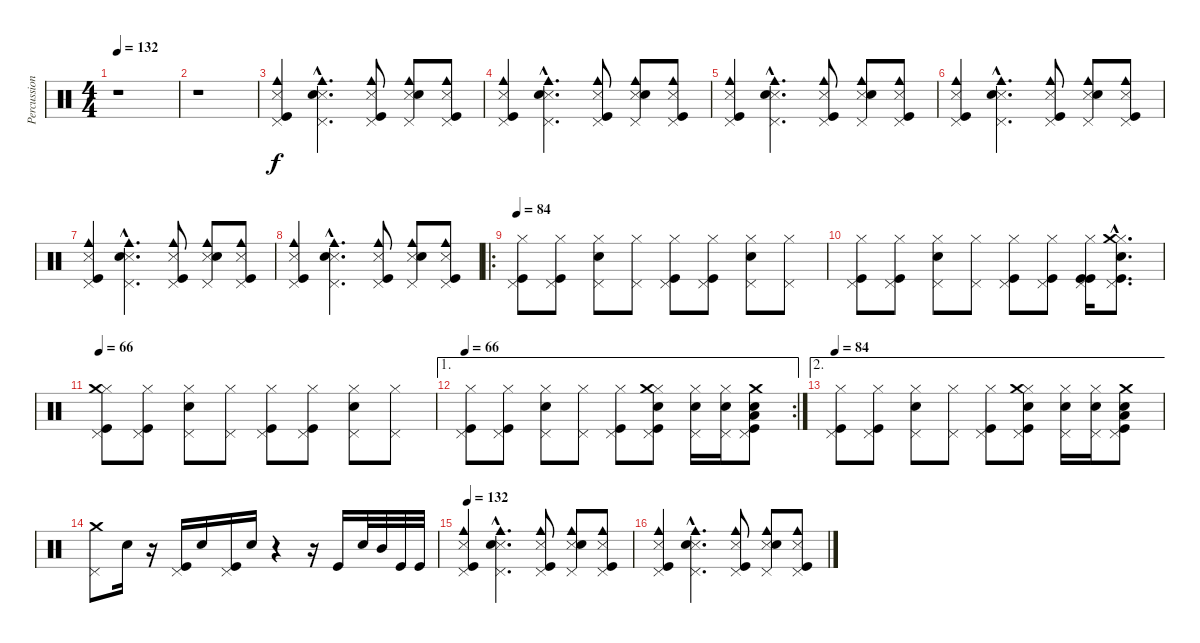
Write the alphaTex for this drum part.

\track ("Percussion" "Percussion") {instrument percussion}
\staff {score}
\articulation defaults
\ts (4 4)
\tempo 132
\clef neutral
\ks c
r.1{dy f} |
r.1 |
("Snare (side stick) 3" "Pedal Hi-Hat (hit)" "Cowbell medium (hit)" "Kick (hit)").4 ("Snare (side stick) 3"{hac} "Pedal Hi-Hat (hit)"{hac} "Cowbell medium (hit)"{hac} "Electric Snare (hit)"{hac}).4{d} ("Snare (side stick) 3" "Pedal Hi-Hat (hit)" "Cowbell medium (hit)" "Kick (hit)").8 ("Snare (side stick) 3" "Pedal Hi-Hat (hit)" "Cowbell medium (hit)" "Electric Snare (hit)").8 ("Snare (side stick) 3" "Pedal Hi-Hat (hit)" "Cowbell medium (hit)" "Kick (hit)").8 |
("Snare (side stick) 3" "Pedal Hi-Hat (hit)" "Cowbell medium (hit)" "Kick (hit)").4 ("Snare (side stick) 3"{hac} "Pedal Hi-Hat (hit)"{hac} "Cowbell medium (hit)"{hac} "Electric Snare (hit)"{hac}).4{d} ("Snare (side stick) 3" "Pedal Hi-Hat (hit)" "Cowbell medium (hit)" "Kick (hit)").8 ("Snare (side stick) 3" "Pedal Hi-Hat (hit)" "Cowbell medium (hit)" "Electric Snare (hit)").8 ("Snare (side stick) 3" "Pedal Hi-Hat (hit)" "Cowbell medium (hit)" "Kick (hit)").8 |
("Snare (side stick) 3" "Pedal Hi-Hat (hit)" "Cowbell medium (hit)" "Kick (hit)").4 ("Snare (side stick) 3"{hac} "Pedal Hi-Hat (hit)"{hac} "Cowbell medium (hit)"{hac} "Electric Snare (hit)"{hac}).4{d} ("Snare (side stick) 3" "Pedal Hi-Hat (hit)" "Cowbell medium (hit)" "Kick (hit)").8 ("Snare (side stick) 3" "Pedal Hi-Hat (hit)" "Cowbell medium (hit)" "Electric Snare (hit)").8 ("Snare (side stick) 3" "Pedal Hi-Hat (hit)" "Cowbell medium (hit)" "Kick (hit)").8 |
("Snare (side stick) 3" "Pedal Hi-Hat (hit)" "Cowbell medium (hit)" "Kick (hit)").4 ("Snare (side stick) 3"{hac} "Pedal Hi-Hat (hit)"{hac} "Cowbell medium (hit)"{hac} "Electric Snare (hit)"{hac}).4{d} ("Snare (side stick) 3" "Pedal Hi-Hat (hit)" "Cowbell medium (hit)" "Kick (hit)").8 ("Snare (side stick) 3" "Pedal Hi-Hat (hit)" "Cowbell medium (hit)" "Electric Snare (hit)").8 ("Snare (side stick) 3" "Pedal Hi-Hat (hit)" "Cowbell medium (hit)" "Kick (hit)").8 |
("Snare (side stick) 3" "Pedal Hi-Hat (hit)" "Cowbell medium (hit)" "Kick (hit)").4 ("Snare (side stick) 3"{hac} "Pedal Hi-Hat (hit)"{hac} "Cowbell medium (hit)"{hac} "Electric Snare (hit)"{hac}).4{d} ("Snare (side stick) 3" "Pedal Hi-Hat (hit)" "Cowbell medium (hit)" "Kick (hit)").8 ("Snare (side stick) 3" "Pedal Hi-Hat (hit)" "Cowbell medium (hit)" "Electric Snare (hit)").8 ("Snare (side stick) 3" "Pedal Hi-Hat (hit)" "Cowbell medium (hit)" "Kick (hit)").8 |
("Snare (side stick) 3" "Pedal Hi-Hat (hit)" "Cowbell medium (hit)" "Kick (hit)").4 ("Snare (side stick) 3"{hac} "Pedal Hi-Hat (hit)"{hac} "Cowbell medium (hit)"{hac} "Electric Snare (hit)"{hac}).4{d} ("Snare (side stick) 3" "Pedal Hi-Hat (hit)" "Cowbell medium (hit)" "Kick (hit)").8 ("Snare (side stick) 3" "Pedal Hi-Hat (hit)" "Cowbell medium (hit)" "Electric Snare (hit)").8 ("Snare (side stick) 3" "Pedal Hi-Hat (hit)" "Cowbell medium (hit)" "Kick (hit)").8 |
\ro
\tempo 66
\tempo 84
("Pedal Hi-Hat (hit)" "Hi-Hat (closed)" "Kick (hit)").8 ("Pedal Hi-Hat (hit)" "Hi-Hat (closed)" "Kick (hit)").8 ("Pedal Hi-Hat (hit)" "Hi-Hat (closed)" "Electric Snare (hit)").8 ("Pedal Hi-Hat (hit)" "Hi-Hat (closed)").8 ("Pedal Hi-Hat (hit)" "Hi-Hat (closed)" "Kick (hit)").8 ("Pedal Hi-Hat (hit)" "Hi-Hat (closed)" "Kick (hit)").8 ("Pedal Hi-Hat (hit)" "Hi-Hat (closed)" "Electric Snare (hit)").8 ("Pedal Hi-Hat (hit)" "Hi-Hat (closed)").8 |
("Pedal Hi-Hat (hit)" "Hi-Hat (closed)" "Kick (hit)").8 ("Pedal Hi-Hat (hit)" "Hi-Hat (closed)" "Kick (hit)").8 ("Pedal Hi-Hat (hit)" "Hi-Hat (closed)" "Electric Snare (hit)").8 ("Pedal Hi-Hat (hit)" "Hi-Hat (closed)").8 ("Pedal Hi-Hat (hit)" "Hi-Hat (closed)" "Kick (hit)").8 ("Pedal Hi-Hat (hit)" "Hi-Hat (closed)" "Kick (hit)").8 ("Pedal Hi-Hat (hit)" "Hi-Hat (closed)" "Kick (hit)" "Kick (hit)").16 ("Pedal Hi-Hat (hit)"{hac} "Hi-Hat (closed)"{hac} "Crash medium (hit)"{hac} "Electric Snare (hit)"{hac} "Kick (hit)"{hac}).8{d} |
\tempo 66
("Pedal Hi-Hat (hit)" "Hi-Hat (closed)" "Crash medium (hit)" "Kick (hit)").8 ("Pedal Hi-Hat (hit)" "Hi-Hat (closed)" "Kick (hit)").8 ("Pedal Hi-Hat (hit)" "Hi-Hat (closed)" "Electric Snare (hit)").8 ("Pedal Hi-Hat (hit)" "Hi-Hat (closed)").8 ("Pedal Hi-Hat (hit)" "Hi-Hat (closed)" "Kick (hit)").8 ("Pedal Hi-Hat (hit)" "Hi-Hat (closed)" "Kick (hit)").8 ("Pedal Hi-Hat (hit)" "Hi-Hat (closed)" "Electric Snare (hit)").8 ("Pedal Hi-Hat (hit)" "Hi-Hat (closed)").8 |
\ae 1
\rc 2
\tempo 66
("Pedal Hi-Hat (hit)" "Hi-Hat (closed)" "Kick (hit)").8 ("Pedal Hi-Hat (hit)" "Hi-Hat (closed)" "Kick (hit)").8 ("Pedal Hi-Hat (hit)" "Hi-Hat (closed)" "Electric Snare (hit)").8 ("Pedal Hi-Hat (hit)" "Hi-Hat (closed)").8 ("Pedal Hi-Hat (hit)" "Hi-Hat (closed)" "Kick (hit)").8 ("Pedal Hi-Hat (hit)" "Hi-Hat (closed)" "Crash medium (hit)" "Electric Snare (hit)" "Kick (hit)").8 ("Pedal Hi-Hat (hit)" "Hi-Hat (closed)" "Electric Snare (hit)").16 ("Pedal Hi-Hat (hit)" "Hi-Hat (closed)" "Electric Snare (hit)").16 ("Pedal Hi-Hat (hit)" "Low Tom (hit)" "Crash medium (hit)" "Electric Snare (hit)" "Kick (hit)").8 |
\ae 2
\tempo 84
("Pedal Hi-Hat (hit)" "Hi-Hat (closed)" "Kick (hit)").8 ("Pedal Hi-Hat (hit)" "Hi-Hat (closed)" "Kick (hit)").8 ("Pedal Hi-Hat (hit)" "Hi-Hat (closed)" "Electric Snare (hit)").8 ("Pedal Hi-Hat (hit)" "Hi-Hat (closed)").8 ("Pedal Hi-Hat (hit)" "Hi-Hat (closed)" "Kick (hit)").8 ("Pedal Hi-Hat (hit)" "Hi-Hat (closed)" "Crash medium (hit)" "Electric Snare (hit)" "Kick (hit)").8 ("Pedal Hi-Hat (hit)" "Hi-Hat (closed)" "Electric Snare (hit)").16 ("Pedal Hi-Hat (hit)" "Hi-Hat (closed)" "Electric Snare (hit)").16 ("Pedal Hi-Hat (hit)" "Low Tom (hit)" "Crash medium (hit)" "Electric Snare (hit)" "Kick (hit)").8 |
("Pedal Hi-Hat (hit)" "Crash medium (hit)").8 "Electric Snare (hit)".16 r.16 ("Pedal Hi-Hat (hit)" "Kick (hit)").16 "Electric Snare (hit)".16 ("Pedal Hi-Hat (hit)" "Kick (hit)").16 "Electric Snare (hit)".16 r.4 r.16 "Kick (hit)".16 "Snare (hit) 2".32 "Mid Tom (hit)".32 "Kick (hit)".32 "Kick (hit)".32 |
\tempo 132
("Snare (side stick) 3" "Pedal Hi-Hat (hit)" "Cowbell medium (hit)" "Kick (hit)").4 ("Snare (side stick) 3"{hac} "Pedal Hi-Hat (hit)"{hac} "Cowbell medium (hit)"{hac} "Electric Snare (hit)"{hac}).4{d} ("Snare (side stick) 3" "Pedal Hi-Hat (hit)" "Cowbell medium (hit)" "Kick (hit)").8 ("Snare (side stick) 3" "Pedal Hi-Hat (hit)" "Cowbell medium (hit)" "Electric Snare (hit)").8 ("Snare (side stick) 3" "Pedal Hi-Hat (hit)" "Cowbell medium (hit)" "Kick (hit)").8 |
("Snare (side stick) 3" "Pedal Hi-Hat (hit)" "Cowbell medium (hit)" "Kick (hit)").4 ("Snare (side stick) 3"{hac} "Pedal Hi-Hat (hit)"{hac} "Cowbell medium (hit)"{hac} "Electric Snare (hit)"{hac}).4{d} ("Snare (side stick) 3" "Pedal Hi-Hat (hit)" "Cowbell medium (hit)" "Kick (hit)").8 ("Snare (side stick) 3" "Pedal Hi-Hat (hit)" "Cowbell medium (hit)" "Electric Snare (hit)").8 ("Snare (side stick) 3" "Pedal Hi-Hat (hit)" "Cowbell medium (hit)" "Kick (hit)").8
